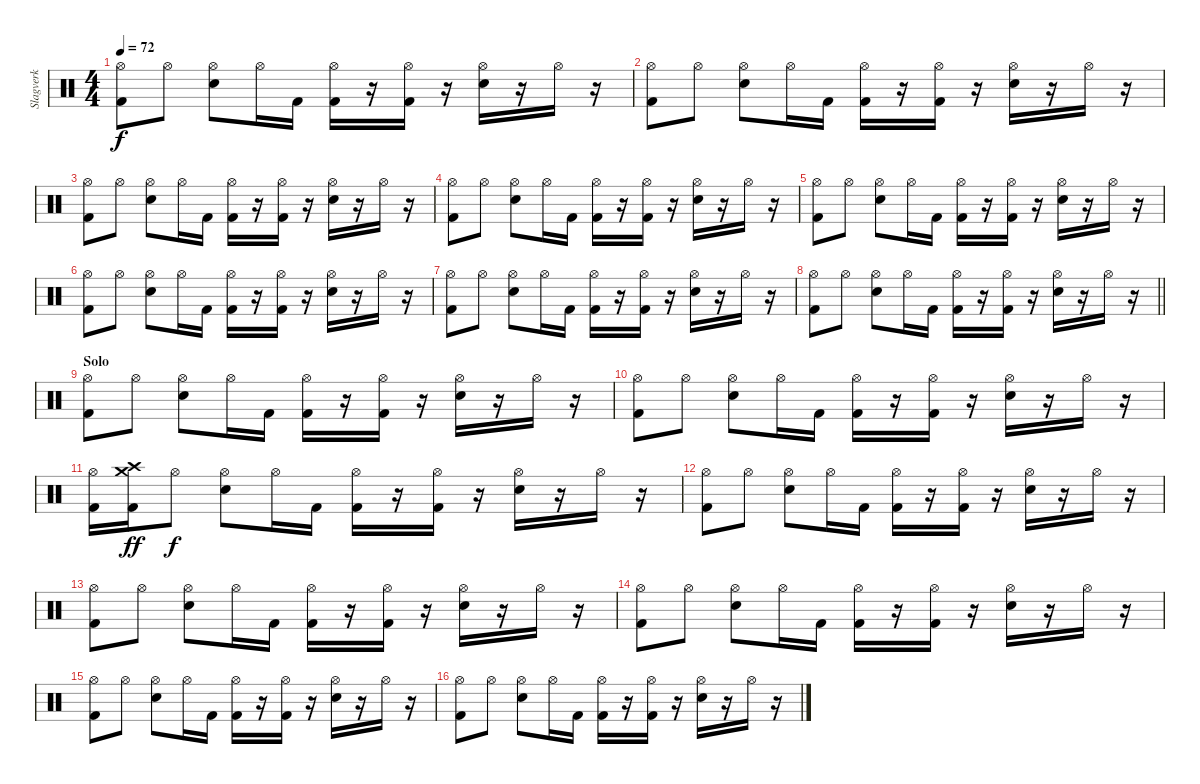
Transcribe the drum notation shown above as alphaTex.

\track ("Slagverk" "Slagverk") {instrument percussion}
\staff {score}
\articulation defaults
\ts (4 4)
\tempo 72
\clef neutral
\ks c
("Hi-Hat (open)" "Kick (hit) 2").8{dy f} "Hi-Hat (open)".8 ("Hi-Hat (open)" "Electric Snare (hit)").8 "Hi-Hat (open)".16 "Kick (hit) 2".16 ("Hi-Hat (open)" "Kick (hit) 2").16 r.16 ("Hi-Hat (open)" "Kick (hit) 2").16 r.16 ("Hi-Hat (open)" "Electric Snare (hit)").16 r.16 "Hi-Hat (open)".16 r.16 |
("Hi-Hat (open)" "Kick (hit) 2").8 "Hi-Hat (open)".8 ("Hi-Hat (open)" "Electric Snare (hit)").8 "Hi-Hat (open)".16 "Kick (hit) 2".16 ("Hi-Hat (open)" "Kick (hit) 2").16 r.16 ("Hi-Hat (open)" "Kick (hit) 2").16 r.16 ("Hi-Hat (open)" "Electric Snare (hit)").16 r.16 "Hi-Hat (open)".16 r.16 |
("Hi-Hat (open)" "Kick (hit) 2").8 "Hi-Hat (open)".8 ("Hi-Hat (open)" "Electric Snare (hit)").8 "Hi-Hat (open)".16 "Kick (hit) 2".16 ("Hi-Hat (open)" "Kick (hit) 2").16 r.16 ("Hi-Hat (open)" "Kick (hit) 2").16 r.16 ("Hi-Hat (open)" "Electric Snare (hit)").16 r.16 "Hi-Hat (open)".16 r.16 |
("Hi-Hat (open)" "Kick (hit) 2").8 "Hi-Hat (open)".8 ("Hi-Hat (open)" "Electric Snare (hit)").8 "Hi-Hat (open)".16 "Kick (hit) 2".16 ("Hi-Hat (open)" "Kick (hit) 2").16 r.16 ("Hi-Hat (open)" "Kick (hit) 2").16 r.16 ("Hi-Hat (open)" "Electric Snare (hit)").16 r.16 "Hi-Hat (open)".16 r.16 |
("Hi-Hat (open)" "Kick (hit) 2").8 "Hi-Hat (open)".8 ("Hi-Hat (open)" "Electric Snare (hit)").8 "Hi-Hat (open)".16 "Kick (hit) 2".16 ("Hi-Hat (open)" "Kick (hit) 2").16 r.16 ("Hi-Hat (open)" "Kick (hit) 2").16 r.16 ("Hi-Hat (open)" "Electric Snare (hit)").16 r.16 "Hi-Hat (open)".16 r.16 |
("Hi-Hat (open)" "Kick (hit) 2").8 "Hi-Hat (open)".8 ("Hi-Hat (open)" "Electric Snare (hit)").8 "Hi-Hat (open)".16 "Kick (hit) 2".16 ("Hi-Hat (open)" "Kick (hit) 2").16 r.16 ("Hi-Hat (open)" "Kick (hit) 2").16 r.16 ("Hi-Hat (open)" "Electric Snare (hit)").16 r.16 "Hi-Hat (open)".16 r.16 |
("Hi-Hat (open)" "Kick (hit) 2").8 "Hi-Hat (open)".8 ("Hi-Hat (open)" "Electric Snare (hit)").8 "Hi-Hat (open)".16 "Kick (hit) 2".16 ("Hi-Hat (open)" "Kick (hit) 2").16 r.16 ("Hi-Hat (open)" "Kick (hit) 2").16 r.16 ("Hi-Hat (open)" "Electric Snare (hit)").16 r.16 "Hi-Hat (open)".16 r.16 |
\barLineRight lightlight
("Hi-Hat (open)" "Kick (hit) 2").8 "Hi-Hat (open)".8 ("Hi-Hat (open)" "Electric Snare (hit)").8 "Hi-Hat (open)".16 "Kick (hit) 2".16 ("Hi-Hat (open)" "Kick (hit) 2").16 r.16 ("Hi-Hat (open)" "Kick (hit) 2").16 r.16 ("Hi-Hat (open)" "Electric Snare (hit)").16 r.16 "Hi-Hat (open)".16 r.16 |
\section ("" "Solo")
("Hi-Hat (open)" "Kick (hit) 2").8 "Hi-Hat (open)".8 ("Hi-Hat (open)" "Electric Snare (hit)").8 "Hi-Hat (open)".16 "Kick (hit) 2".16 ("Hi-Hat (open)" "Kick (hit) 2").16 r.16 ("Hi-Hat (open)" "Kick (hit) 2").16 r.16 ("Hi-Hat (open)" "Electric Snare (hit)").16 r.16 "Hi-Hat (open)".16 r.16 |
("Hi-Hat (open)" "Kick (hit) 2").8 "Hi-Hat (open)".8 ("Hi-Hat (open)" "Electric Snare (hit)").8 "Hi-Hat (open)".16 "Kick (hit) 2".16 ("Hi-Hat (open)" "Kick (hit) 2").16 r.16 ("Hi-Hat (open)" "Kick (hit) 2").16 r.16 ("Hi-Hat (open)" "Electric Snare (hit)").16 r.16 "Hi-Hat (open)".16 r.16 |
("Hi-Hat (open)" "Kick (hit) 2").16 ("Crash medium (hit)" "Crash high (hit)" "Kick (hit) 2").16{dy ff} "Hi-Hat (open)".8{dy f} ("Hi-Hat (open)" "Electric Snare (hit)").8 "Hi-Hat (open)".16 "Kick (hit) 2".16 ("Hi-Hat (open)" "Kick (hit) 2").16 r.16 ("Hi-Hat (open)" "Kick (hit) 2").16 r.16 ("Hi-Hat (open)" "Electric Snare (hit)").16 r.16 "Hi-Hat (open)".16 r.16 |
("Hi-Hat (open)" "Kick (hit) 2").8 "Hi-Hat (open)".8 ("Hi-Hat (open)" "Electric Snare (hit)").8 "Hi-Hat (open)".16 "Kick (hit) 2".16 ("Hi-Hat (open)" "Kick (hit) 2").16 r.16 ("Hi-Hat (open)" "Kick (hit) 2").16 r.16 ("Hi-Hat (open)" "Electric Snare (hit)").16 r.16 "Hi-Hat (open)".16 r.16 |
("Hi-Hat (open)" "Kick (hit) 2").8 "Hi-Hat (open)".8 ("Hi-Hat (open)" "Electric Snare (hit)").8 "Hi-Hat (open)".16 "Kick (hit) 2".16 ("Hi-Hat (open)" "Kick (hit) 2").16 r.16 ("Hi-Hat (open)" "Kick (hit) 2").16 r.16 ("Hi-Hat (open)" "Electric Snare (hit)").16 r.16 "Hi-Hat (open)".16 r.16 |
("Hi-Hat (open)" "Kick (hit) 2").8 "Hi-Hat (open)".8 ("Hi-Hat (open)" "Electric Snare (hit)").8 "Hi-Hat (open)".16 "Kick (hit) 2".16 ("Hi-Hat (open)" "Kick (hit) 2").16 r.16 ("Hi-Hat (open)" "Kick (hit) 2").16 r.16 ("Hi-Hat (open)" "Electric Snare (hit)").16 r.16 "Hi-Hat (open)".16 r.16 |
("Hi-Hat (open)" "Kick (hit) 2").8 "Hi-Hat (open)".8 ("Hi-Hat (open)" "Electric Snare (hit)").8 "Hi-Hat (open)".16 "Kick (hit) 2".16 ("Hi-Hat (open)" "Kick (hit) 2").16 r.16 ("Hi-Hat (open)" "Kick (hit) 2").16 r.16 ("Hi-Hat (open)" "Electric Snare (hit)").16 r.16 "Hi-Hat (open)".16 r.16 |
("Hi-Hat (open)" "Kick (hit) 2").8 "Hi-Hat (open)".8 ("Hi-Hat (open)" "Electric Snare (hit)").8 "Hi-Hat (open)".16 "Kick (hit) 2".16 ("Hi-Hat (open)" "Kick (hit) 2").16 r.16 ("Hi-Hat (open)" "Kick (hit) 2").16 r.16 ("Hi-Hat (open)" "Electric Snare (hit)").16 r.16 "Hi-Hat (open)".16 r.16
